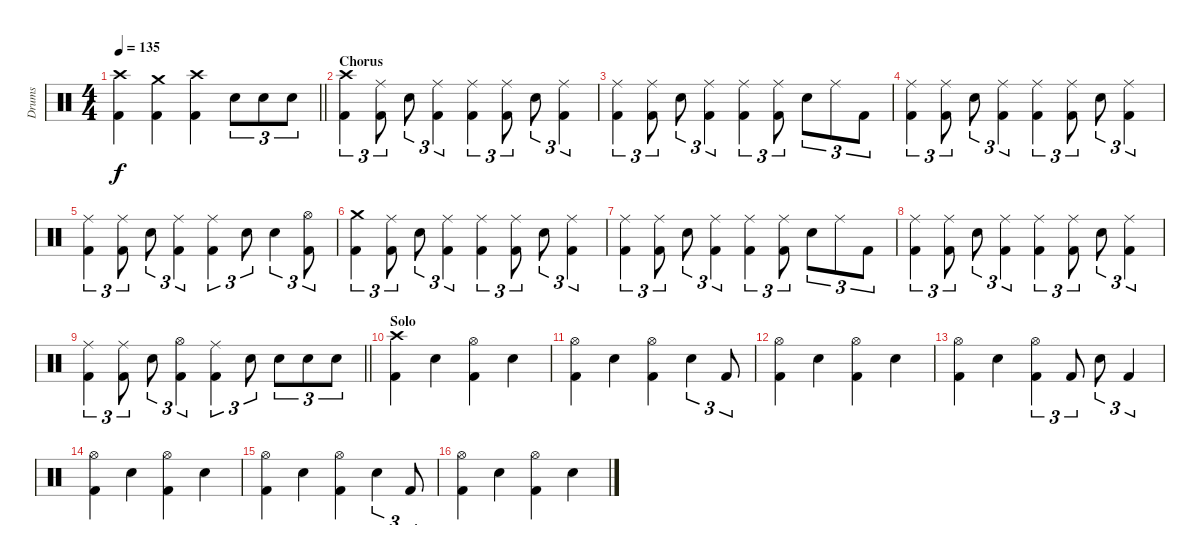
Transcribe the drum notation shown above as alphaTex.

\track ("Drums" "Drums") {instrument percussion}
\staff {score}
\articulation defaults
\ts (4 4)
\tempo 135
\clef neutral
\barLineRight lightlight
\ks c
("Crash high (hit)" "Kick (hit) 2").4{dy f} ("Crash medium (hit)" "Kick (hit) 2").4 ("Crash high (hit)" "Kick (hit) 2").4 "Snare (hit) 2".8{tu (3 2)} "Snare (hit) 2".8{tu (3 2)} "Snare (hit) 2".8{tu (3 2)} |
\section ("" "Chorus")
("Crash high (hit)" "Kick (hit) 2").4{tu (3 2)} ("Ride (middle)" "Kick (hit) 2").8{tu (3 2)} "Snare (hit) 2".8{tu (3 2)} ("Ride (middle)" "Kick (hit) 2").4{tu (3 2)} ("Ride (middle)" "Kick (hit) 2").4{tu (3 2)} ("Ride (middle)" "Kick (hit) 2").8{tu (3 2)} "Snare (hit) 2".8{tu (3 2)} ("Ride (middle)" "Kick (hit) 2").4{tu (3 2)} |
("Ride (middle)" "Kick (hit) 2").4{tu (3 2)} ("Ride (middle)" "Kick (hit) 2").8{tu (3 2)} "Snare (hit) 2".8{tu (3 2)} ("Ride (middle)" "Kick (hit) 2").4{tu (3 2)} ("Ride (middle)" "Kick (hit) 2").4{tu (3 2)} ("Ride (middle)" "Kick (hit) 2").8{tu (3 2)} "Snare (hit) 2".8{tu (3 2)} "Ride (middle)".8{tu (3 2)} "Kick (hit) 2".8{tu (3 2)} |
("Ride (middle)" "Kick (hit) 2").4{tu (3 2)} ("Ride (middle)" "Kick (hit) 2").8{tu (3 2)} "Snare (hit) 2".8{tu (3 2)} ("Ride (middle)" "Kick (hit) 2").4{tu (3 2)} ("Ride (middle)" "Kick (hit) 2").4{tu (3 2)} ("Ride (middle)" "Kick (hit) 2").8{tu (3 2)} "Snare (hit) 2".8{tu (3 2)} ("Ride (middle)" "Kick (hit) 2").4{tu (3 2)} |
("Ride (middle)" "Kick (hit) 2").4{tu (3 2)} ("Ride (middle)" "Kick (hit) 2").8{tu (3 2)} "Snare (hit) 2".8{tu (3 2)} ("Ride (middle)" "Kick (hit) 2").4{tu (3 2)} ("Ride (middle)" "Kick (hit) 2").4{tu (3 2)} "Snare (hit) 2".8{tu (3 2)} "Snare (hit) 2".4{tu (3 2)} ("Hi-Hat (open)" "Kick (hit) 2").8{tu (3 2)} |
("Crash medium (hit)" "Kick (hit) 2").4{tu (3 2)} ("Ride (middle)" "Kick (hit) 2").8{tu (3 2)} "Snare (hit) 2".8{tu (3 2)} ("Ride (middle)" "Kick (hit) 2").4{tu (3 2)} ("Ride (middle)" "Kick (hit) 2").4{tu (3 2)} ("Ride (middle)" "Kick (hit) 2").8{tu (3 2)} "Snare (hit) 2".8{tu (3 2)} ("Ride (middle)" "Kick (hit) 2").4{tu (3 2)} |
("Ride (middle)" "Kick (hit) 2").4{tu (3 2)} ("Ride (middle)" "Kick (hit) 2").8{tu (3 2)} "Snare (hit) 2".8{tu (3 2)} ("Ride (middle)" "Kick (hit) 2").4{tu (3 2)} ("Ride (middle)" "Kick (hit) 2").4{tu (3 2)} ("Ride (middle)" "Kick (hit) 2").8{tu (3 2)} "Snare (hit) 2".8{tu (3 2)} "Ride (middle)".8{tu (3 2)} "Kick (hit) 2".8{tu (3 2)} |
("Ride (middle)" "Kick (hit) 2").4{tu (3 2)} ("Ride (middle)" "Kick (hit) 2").8{tu (3 2)} "Snare (hit) 2".8{tu (3 2)} ("Ride (middle)" "Kick (hit) 2").4{tu (3 2)} ("Ride (middle)" "Kick (hit) 2").4{tu (3 2)} ("Ride (middle)" "Kick (hit) 2").8{tu (3 2)} "Snare (hit) 2".8{tu (3 2)} ("Ride (middle)" "Kick (hit) 2").4{tu (3 2)} |
\barLineRight lightlight
("Ride (middle)" "Kick (hit) 2").4{tu (3 2)} ("Ride (middle)" "Kick (hit) 2").8{tu (3 2)} "Snare (hit) 2".8{tu (3 2)} ("Hi-Hat (open)" "Kick (hit) 2").4{tu (3 2)} ("Ride (middle)" "Kick (hit) 2").4{tu (3 2)} "Snare (hit) 2".8{tu (3 2)} "Snare (hit) 2".8{tu (3 2)} "Snare (hit) 2".8{tu (3 2)} "Snare (hit) 2".8{tu (3 2)} |
\section ("" "Solo")
("Crash high (hit)" "Kick (hit) 2").4 "Snare (hit) 2".4 ("Hi-Hat (open)" "Kick (hit) 2").4 "Snare (hit) 2".4 |
("Hi-Hat (open)" "Kick (hit) 2").4 "Snare (hit) 2".4 ("Hi-Hat (open)" "Kick (hit) 2").4 "Snare (hit) 2".4{tu (3 2)} "Kick (hit) 2".8{tu (3 2)} |
("Hi-Hat (open)" "Kick (hit) 2").4 "Snare (hit) 2".4 ("Hi-Hat (open)" "Kick (hit) 2").4 "Snare (hit) 2".4 |
("Hi-Hat (open)" "Kick (hit) 2").4 "Snare (hit) 2".4 ("Hi-Hat (open)" "Kick (hit) 2").4{tu (3 2)} "Kick (hit) 2".8{tu (3 2)} "Snare (hit) 2".8{tu (3 2)} "Kick (hit) 2".4{tu (3 2)} |
("Hi-Hat (open)" "Kick (hit) 2").4 "Snare (hit) 2".4 ("Hi-Hat (open)" "Kick (hit) 2").4 "Snare (hit) 2".4 |
("Hi-Hat (open)" "Kick (hit) 2").4 "Snare (hit) 2".4 ("Hi-Hat (open)" "Kick (hit) 2").4 "Snare (hit) 2".4{tu (3 2)} "Kick (hit) 2".8{tu (3 2)} |
("Hi-Hat (open)" "Kick (hit) 2").4 "Snare (hit) 2".4 ("Hi-Hat (open)" "Kick (hit) 2").4 "Snare (hit) 2".4
